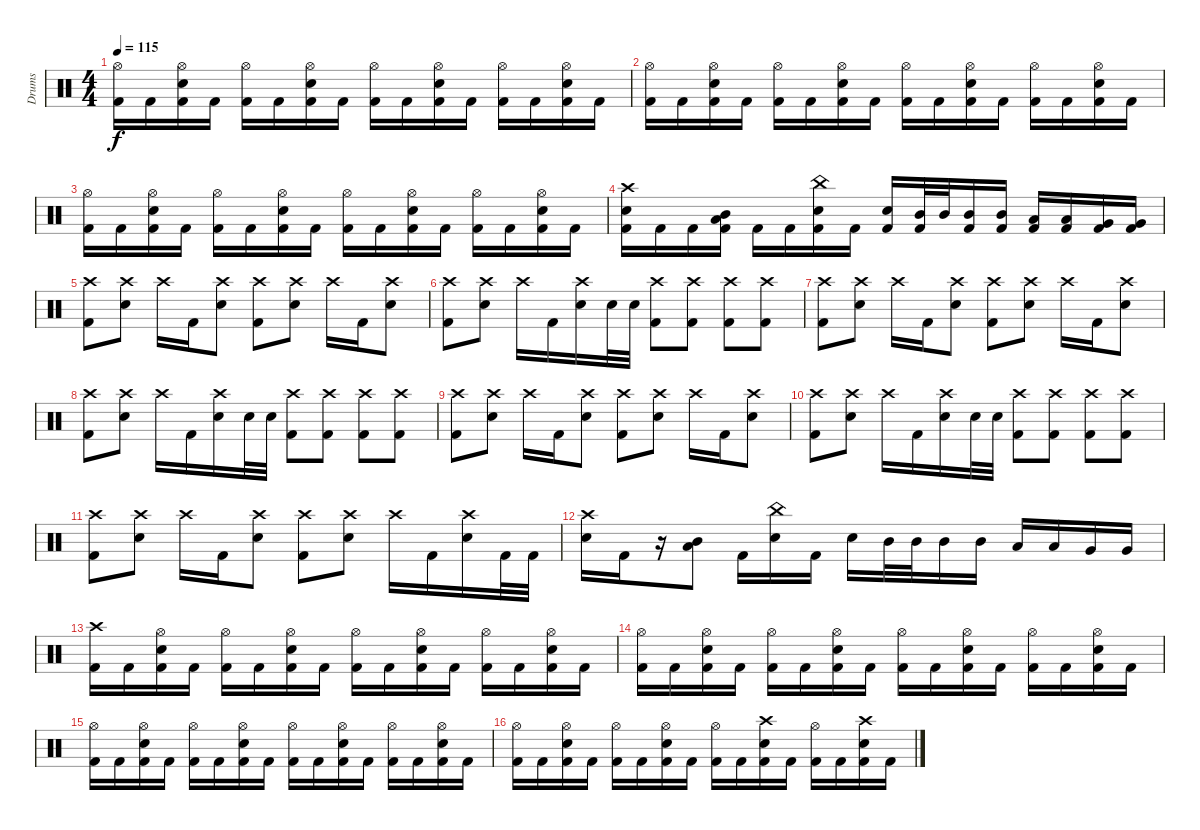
\track ("Drums" "Drums") {instrument percussion}
\staff {score}
\articulation defaults
\ts (4 4)
\tempo 115
\clef neutral
\ks c
("Hi-Hat (open)" "Kick (hit) 2").16{dy f} "Kick (hit) 2".16 ("Hi-Hat (open)" "Electric Snare (hit)" "Kick (hit) 2").16 "Kick (hit) 2".16 ("Hi-Hat (open)" "Kick (hit) 2").16 "Kick (hit) 2".16 ("Hi-Hat (open)" "Electric Snare (hit)" "Kick (hit) 2").16 "Kick (hit) 2".16 ("Hi-Hat (open)" "Kick (hit) 2").16 "Kick (hit) 2".16 ("Hi-Hat (open)" "Electric Snare (hit)" "Kick (hit) 2").16 "Kick (hit) 2".16 ("Hi-Hat (open)" "Kick (hit) 2").16 "Kick (hit) 2".16 ("Hi-Hat (open)" "Electric Snare (hit)" "Kick (hit) 2").16 "Kick (hit) 2".16 |
("Hi-Hat (open)" "Kick (hit) 2").16 "Kick (hit) 2".16 ("Hi-Hat (open)" "Electric Snare (hit)" "Kick (hit) 2").16 "Kick (hit) 2".16 ("Hi-Hat (open)" "Kick (hit) 2").16 "Kick (hit) 2".16 ("Hi-Hat (open)" "Electric Snare (hit)" "Kick (hit) 2").16 "Kick (hit) 2".16 ("Hi-Hat (open)" "Kick (hit) 2").16 "Kick (hit) 2".16 ("Hi-Hat (open)" "Electric Snare (hit)" "Kick (hit) 2").16 "Kick (hit) 2".16 ("Hi-Hat (open)" "Kick (hit) 2").16 "Kick (hit) 2".16 ("Hi-Hat (open)" "Electric Snare (hit)" "Kick (hit) 2").16 "Kick (hit) 2".16 |
("Hi-Hat (open)" "Kick (hit) 2").16 "Kick (hit) 2".16 ("Hi-Hat (open)" "Electric Snare (hit)" "Kick (hit) 2").16 "Kick (hit) 2".16 ("Hi-Hat (open)" "Kick (hit) 2").16 "Kick (hit) 2".16 ("Hi-Hat (open)" "Electric Snare (hit)" "Kick (hit) 2").16 "Kick (hit) 2".16 ("Hi-Hat (open)" "Kick (hit) 2").16 "Kick (hit) 2".16 ("Hi-Hat (open)" "Electric Snare (hit)" "Kick (hit) 2").16 "Kick (hit) 2".16 ("Hi-Hat (open)" "Kick (hit) 2").16 "Kick (hit) 2".16 ("Hi-Hat (open)" "Electric Snare (hit)" "Kick (hit) 2").16 "Kick (hit) 2".16 |
("Crash high (hit)" "Electric Snare (hit)" "Kick (hit) 2").16 "Kick (hit) 2".16 "Kick (hit) 2".16 ("Mid Tom (hit)" "Low Tom (hit)" "Kick (hit) 2").16 "Kick (hit) 2".16 "Kick (hit) 2".16 ("China (hit)" "Electric Snare (hit)" "Kick (hit) 2").16 "Kick (hit) 2".16 ("Electric Snare (hit)" "Kick (hit) 2").16 ("Mid Tom (hit)" "Kick (hit) 2").32 "Mid Tom (hit)".32 ("Mid Tom (hit)" "Kick (hit) 2").16 ("Mid Tom (hit)" "Kick (hit) 2").16 ("Low Tom (hit)" "Kick (hit) 2").16 ("Low Tom (hit)" "Kick (hit) 2").16 ("Very Low Tom (hit)" "Kick (hit) 2").16 ("Very Low Tom (hit)" "Kick (hit) 2").16 |
("Crash high (hit)" "Kick (hit) 2").8 ("Crash high (hit)" "Electric Snare (hit)").8 "Crash high (hit)".16 "Kick (hit) 2".16 ("Crash high (hit)" "Electric Snare (hit)").8 ("Crash high (hit)" "Kick (hit) 2").8 ("Crash high (hit)" "Electric Snare (hit)").8 "Crash high (hit)".16 "Kick (hit) 2".16 ("Crash high (hit)" "Electric Snare (hit)").8 |
("Crash high (hit)" "Kick (hit) 2").8 ("Crash high (hit)" "Electric Snare (hit)").8 "Crash high (hit)".16 "Kick (hit) 2".16 ("Crash high (hit)" "Electric Snare (hit)").16 "Electric Snare (hit)".32 "Electric Snare (hit)".32 ("Crash high (hit)" "Kick (hit) 2").8 ("Crash high (hit)" "Kick (hit) 2").8 ("Crash high (hit)" "Kick (hit) 2").8 ("Crash high (hit)" "Kick (hit) 2").8 |
("Crash high (hit)" "Kick (hit) 2").8 ("Crash high (hit)" "Electric Snare (hit)").8 "Crash high (hit)".16 "Kick (hit) 2".16 ("Crash high (hit)" "Electric Snare (hit)").8 ("Crash high (hit)" "Kick (hit) 2").8 ("Crash high (hit)" "Electric Snare (hit)").8 "Crash high (hit)".16 "Kick (hit) 2".16 ("Crash high (hit)" "Electric Snare (hit)").8 |
("Crash high (hit)" "Kick (hit) 2").8 ("Crash high (hit)" "Electric Snare (hit)").8 "Crash high (hit)".16 "Kick (hit) 2".16 ("Crash high (hit)" "Electric Snare (hit)").16 "Electric Snare (hit)".32 "Electric Snare (hit)".32 ("Crash high (hit)" "Kick (hit) 2").8 ("Crash high (hit)" "Kick (hit) 2").8 ("Crash high (hit)" "Kick (hit) 2").8 ("Crash high (hit)" "Kick (hit) 2").8 |
("Crash high (hit)" "Kick (hit) 2").8 ("Crash high (hit)" "Electric Snare (hit)").8 "Crash high (hit)".16 "Kick (hit) 2".16 ("Crash high (hit)" "Electric Snare (hit)").8 ("Crash high (hit)" "Kick (hit) 2").8 ("Crash high (hit)" "Electric Snare (hit)").8 "Crash high (hit)".16 "Kick (hit) 2".16 ("Crash high (hit)" "Electric Snare (hit)").8 |
("Crash high (hit)" "Kick (hit) 2").8 ("Crash high (hit)" "Electric Snare (hit)").8 "Crash high (hit)".16 "Kick (hit) 2".16 ("Crash high (hit)" "Electric Snare (hit)").16 "Electric Snare (hit)".32 "Electric Snare (hit)".32 ("Crash high (hit)" "Kick (hit) 2").8 ("Crash high (hit)" "Kick (hit) 2").8 ("Crash high (hit)" "Kick (hit) 2").8 ("Crash high (hit)" "Kick (hit) 2").8 |
("Crash high (hit)" "Kick (hit) 2").8 ("Crash high (hit)" "Electric Snare (hit)").8 "Crash high (hit)".16 "Kick (hit) 2".16 ("Crash high (hit)" "Electric Snare (hit)").8 ("Crash high (hit)" "Kick (hit) 2").8 ("Crash high (hit)" "Electric Snare (hit)").8 "Crash high (hit)".16 "Kick (hit) 2".16 ("Crash high (hit)" "Electric Snare (hit)").16 "Kick (hit) 2".32 "Kick (hit) 2".32 |
("Crash high (hit)" "Electric Snare (hit)").16 "Kick (hit) 2".16 r.16 ("Mid Tom (hit)" "Low Tom (hit)").8 "Kick (hit) 2".16 ("China (hit)" "Electric Snare (hit)").16 "Kick (hit) 2".16 "Electric Snare (hit)".16 "Mid Tom (hit)".32 "Mid Tom (hit)".32 "Mid Tom (hit)".16 "Mid Tom (hit)".16 "Low Tom (hit)".16 "Low Tom (hit)".16 "Very Low Tom (hit)".16 "Very Low Tom (hit)".16 |
("Crash high (hit)" "Kick (hit) 2").16 "Kick (hit) 2".16 ("Hi-Hat (open)" "Electric Snare (hit)" "Kick (hit) 2").16 "Kick (hit) 2".16 ("Hi-Hat (open)" "Kick (hit) 2").16 "Kick (hit) 2".16 ("Hi-Hat (open)" "Electric Snare (hit)" "Kick (hit) 2").16 "Kick (hit) 2".16 ("Hi-Hat (open)" "Kick (hit) 2").16 "Kick (hit) 2".16 ("Hi-Hat (open)" "Electric Snare (hit)" "Kick (hit) 2").16 "Kick (hit) 2".16 ("Hi-Hat (open)" "Kick (hit) 2").16 "Kick (hit) 2".16 ("Hi-Hat (open)" "Electric Snare (hit)" "Kick (hit) 2").16 "Kick (hit) 2".16 |
("Hi-Hat (open)" "Kick (hit) 2").16 "Kick (hit) 2".16 ("Hi-Hat (open)" "Electric Snare (hit)" "Kick (hit) 2").16 "Kick (hit) 2".16 ("Hi-Hat (open)" "Kick (hit) 2").16 "Kick (hit) 2".16 ("Hi-Hat (open)" "Electric Snare (hit)" "Kick (hit) 2").16 "Kick (hit) 2".16 ("Hi-Hat (open)" "Kick (hit) 2").16 "Kick (hit) 2".16 ("Hi-Hat (open)" "Electric Snare (hit)" "Kick (hit) 2").16 "Kick (hit) 2".16 ("Hi-Hat (open)" "Kick (hit) 2").16 "Kick (hit) 2".16 ("Hi-Hat (open)" "Electric Snare (hit)" "Kick (hit) 2").16 "Kick (hit) 2".16 |
("Hi-Hat (open)" "Kick (hit) 2").16 "Kick (hit) 2".16 ("Hi-Hat (open)" "Electric Snare (hit)" "Kick (hit) 2").16 "Kick (hit) 2".16 ("Hi-Hat (open)" "Kick (hit) 2").16 "Kick (hit) 2".16 ("Hi-Hat (open)" "Electric Snare (hit)" "Kick (hit) 2").16 "Kick (hit) 2".16 ("Hi-Hat (open)" "Kick (hit) 2").16 "Kick (hit) 2".16 ("Hi-Hat (open)" "Electric Snare (hit)" "Kick (hit) 2").16 "Kick (hit) 2".16 ("Hi-Hat (open)" "Kick (hit) 2").16 "Kick (hit) 2".16 ("Hi-Hat (open)" "Electric Snare (hit)" "Kick (hit) 2").16 "Kick (hit) 2".16 |
("Hi-Hat (open)" "Kick (hit) 2").16 "Kick (hit) 2".16 ("Hi-Hat (open)" "Electric Snare (hit)" "Kick (hit) 2").16 "Kick (hit) 2".16 ("Hi-Hat (open)" "Kick (hit) 2").16 "Kick (hit) 2".16 ("Hi-Hat (open)" "Electric Snare (hit)" "Kick (hit) 2").16 "Kick (hit) 2".16 ("Hi-Hat (open)" "Kick (hit) 2").16 "Kick (hit) 2".16 ("Crash high (hit)" "Electric Snare (hit)" "Kick (hit) 2").16 "Kick (hit) 2".16 ("Hi-Hat (open)" "Kick (hit) 2").16 "Kick (hit) 2".16 ("Crash high (hit)" "Electric Snare (hit)" "Kick (hit) 2").16 "Kick (hit) 2".16
